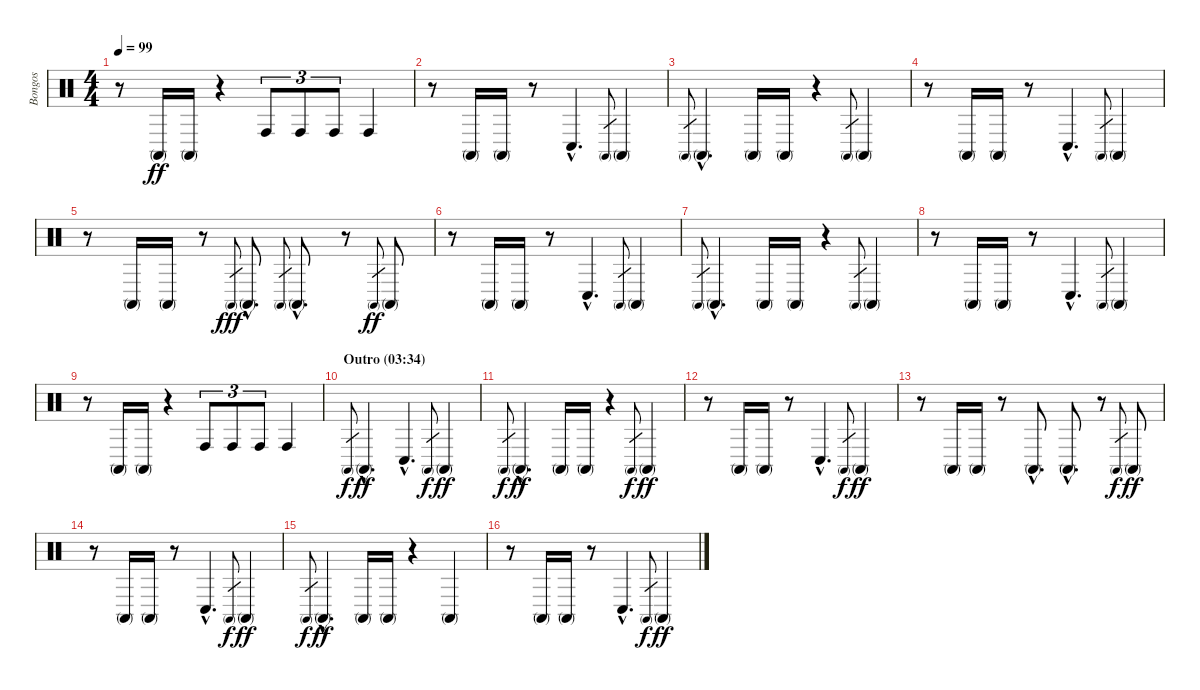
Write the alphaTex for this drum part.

\track ("Bongos" "Bongos") {instrument percussion}
\staff {score}
\articulation defaults
\ts (4 4)
\tempo 99
\clef neutral
\ks c
r.8{dy ff} "Conga high (mute)".16 "Conga high (mute)".16 r.4 "Conga high (hit)".8{tu (3 2)} "Conga high (hit)".8{tu (3 2)} "Conga high (hit)".8{tu (3 2)} "Conga high (hit)".4 |
r.8 "Conga high (mute)".16 "Conga high (mute)".16 r.8 "Conga low (hit)"{hac}.4{d} "Conga high (mute)".8{gr} "Conga high (mute)".4 |
"Conga high (mute)".8{gr} "Conga high (mute)"{hac}.4{d} "Conga high (mute)".16 "Conga high (mute)".16 r.4 "Conga high (mute)".8{gr} "Conga high (mute)".4 |
r.8 "Conga high (mute)".16 "Conga high (mute)".16 r.8 "Conga low (hit)"{hac}.4{d} "Conga high (mute)".8{gr} "Conga high (mute)".4 |
r.8 "Conga high (mute)".16 "Conga high (mute)".16 r.8 "Conga high (mute)".8{gr dy fff} "Conga high (mute)"{hac}.8{d} "Conga high (mute)".8{gr} "Conga high (mute)"{hac}.8{d} r.8 "Conga high (mute)".8{gr dy ff} "Conga high (mute)".8 |
r.8 "Conga high (mute)".16 "Conga high (mute)".16 r.8 "Conga low (hit)"{hac}.4{d} "Conga high (mute)".8{gr} "Conga high (mute)".4 |
"Conga high (mute)".8{gr} "Conga high (mute)"{hac}.4{d} "Conga high (mute)".16 "Conga high (mute)".16 r.4 "Conga high (mute)".8{gr} "Conga high (mute)".4 |
r.8 "Conga high (mute)".16 "Conga high (mute)".16 r.8 "Conga low (hit)"{hac}.4{d} "Conga high (mute)".8{gr} "Conga high (mute)".4 |
r.8 "Conga high (mute)".16 "Conga high (mute)".16 r.4 "Conga high (hit)".8{tu (3 2)} "Conga high (hit)".8{tu (3 2)} "Conga high (hit)".8{tu (3 2)} "Conga high (hit)".4 |
\section ("" "Outro (03:34)")
"Conga high (mute)".8{gr dy f} "Conga high (mute)"{hac}.4{d dy ff} "Conga low (hit)"{hac}.4{d} "Conga high (mute)".8{gr dy f} "Conga high (mute)".4{dy ff} |
"Conga high (mute)".8{gr dy f} "Conga high (mute)"{hac}.4{d dy ff} "Conga high (mute)".16 "Conga high (mute)".16 r.4 "Conga high (mute)".8{gr dy f} "Conga high (mute)".4{dy ff} |
r.8 "Conga high (mute)".16 "Conga high (mute)".16 r.8 "Conga low (hit)"{hac}.4{d} "Conga high (mute)".8{gr dy f} "Conga high (mute)".4{dy ff} |
r.8 "Conga high (mute)".16 "Conga high (mute)".16 r.8 "Conga high (mute)"{hac}.8{d} "Conga high (mute)"{hac}.8{d} r.8 "Conga high (mute)".8{gr dy f} "Conga high (mute)".8{dy ff} |
r.8 "Conga high (mute)".16 "Conga high (mute)".16 r.8 "Conga low (hit)"{hac}.4{d} "Conga high (mute)".8{gr dy f} "Conga high (mute)".4{dy ff} |
"Conga high (mute)".8{gr dy f} "Conga high (mute)"{hac}.4{d dy ff} "Conga high (mute)".16 "Conga high (mute)".16 r.4 "Conga high (mute)".4 |
r.8 "Conga high (mute)".16 "Conga high (mute)".16 r.8 "Conga low (hit)"{hac}.4{d} "Conga high (mute)".8{gr dy f} "Conga high (mute)".4{dy ff}
